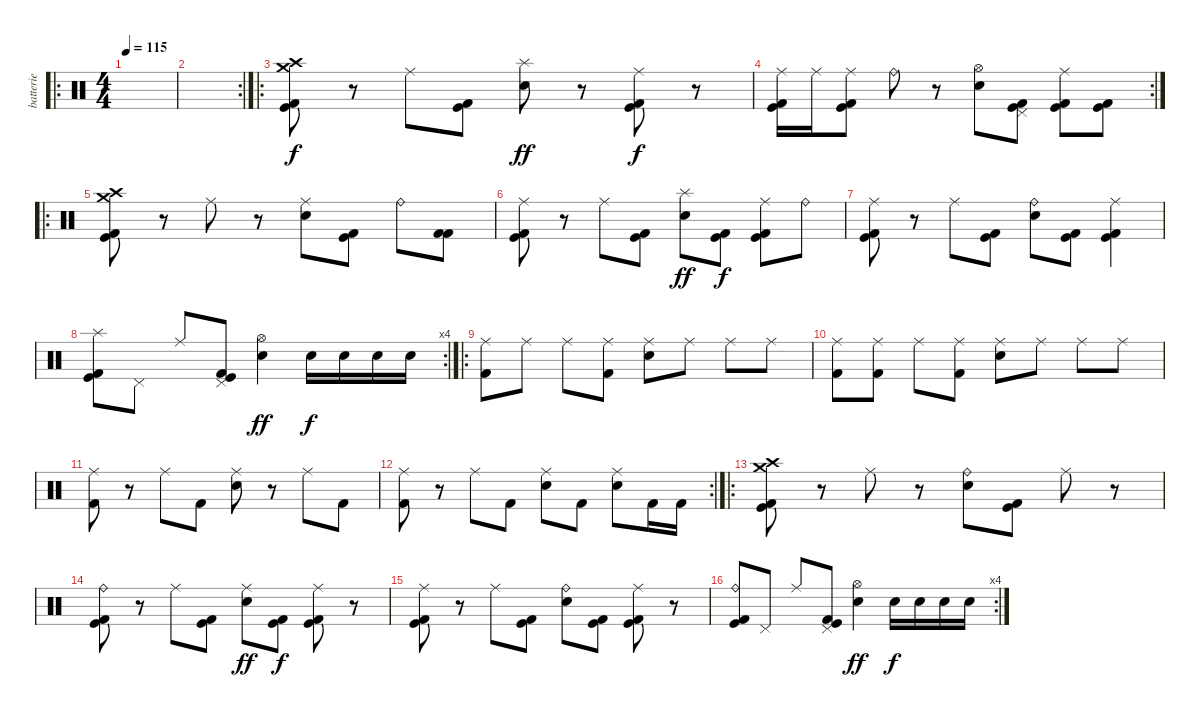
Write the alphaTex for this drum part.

\track ("batterie" "batterie") {instrument percussion}
\staff {score}
\articulation defaults
\ro
\ts (4 4)
\tempo 115
\clef neutral
\ks c
|
\rc 2
|
\ro
("Crash medium (hit)" "Crash high (hit)" "Kick (hit)" "Kick (hit) 2").8 r.8 "Ride (middle)".8 ("Kick (hit)" "Kick (hit) 2").8 ("Splash (hit)" "Electric Snare (hit)").8{dy ff} r.8 ("Ride (middle)" "Kick (hit)" "Kick (hit) 2").8{dy f} r.8 |
\rc 2
("Ride (middle)" "Kick (hit)" "Kick (hit) 2").16 "Ride (middle)".16 ("Ride (middle)" "Kick (hit)" "Kick (hit) 2").8 "Ride (bell)".8 r.8 ("Hi-Hat (open)" "Electric Snare (hit)").8 ("Pedal Hi-Hat (hit)" "Kick (hit)" "Kick (hit) 2").8 ("Ride (middle)" "Kick (hit)" "Kick (hit) 2").8 ("Kick (hit)" "Kick (hit) 2").8 |
\ro
("Crash high (hit)" "Crash medium (hit)" "Kick (hit)" "Kick (hit) 2").8 r.8 "Ride (middle)".8 r.8 ("Ride (middle)" "Electric Snare (hit)").8 ("Kick (hit)" "Kick (hit) 2").8 "Ride (bell)".8 ("Kick (hit) 2" "Kick (hit) 2").8 |
("Ride (middle)" "Kick (hit)" "Kick (hit) 2").8 r.8 "Ride (middle)".8 ("Kick (hit)" "Kick (hit) 2").8 ("Splash (hit)" "Electric Snare (hit)").8{dy ff} ("Kick (hit)" "Kick (hit) 2").8{dy f} ("Ride (middle)" "Kick (hit)" "Kick (hit) 2").8 "Ride (bell)".8 |
("Ride (middle)" "Kick (hit)" "Kick (hit) 2").8 r.8 "Ride (middle)".8 ("Kick (hit)" "Kick (hit) 2").8 ("Ride (bell)" "Electric Snare (hit)").8 ("Kick (hit)" "Kick (hit) 2").8 ("Ride (middle)" "Kick (hit)" "Kick (hit) 2").4 |
\rc 4
("Splash (hit)" "Kick (hit)" "Kick (hit) 2").8 "Pedal Hi-Hat (hit)".8 "Ride (middle)".8 ("Pedal Hi-Hat (hit)" "Kick (hit)" "Kick (hit) 2").8 ("Hi-Hat (open)" "Electric Snare (hit)").4{dy ff} "Electric Snare (hit)".16{dy f} "Electric Snare (hit)".16 "Electric Snare (hit)".16 "Electric Snare (hit)".16 |
\ro
("Ride (middle)" "Kick (hit) 2").8 "Ride (middle)".8 "Ride (middle)".8 ("Ride (middle)" "Kick (hit) 2").8 ("Ride (middle)" "Electric Snare (hit)").8 "Ride (middle)".8 "Ride (middle)".8 "Ride (middle)".8 |
("Ride (middle)" "Kick (hit) 2").8 ("Ride (middle)" "Kick (hit) 2").8 "Ride (middle)".8 ("Ride (middle)" "Kick (hit) 2").8 ("Ride (middle)" "Electric Snare (hit)").8 "Ride (middle)".8 "Ride (middle)".8 "Ride (middle)".8 |
("Ride (middle)" "Kick (hit) 2").8 r.8 "Ride (middle)".8 "Kick (hit) 2".8 ("Ride (middle)" "Electric Snare (hit)").8 r.8 "Ride (middle)".8 "Kick (hit) 2".8 |
\rc 2
("Ride (middle)" "Kick (hit) 2").8 r.8 "Ride (middle)".8 "Kick (hit) 2".8 ("Ride (middle)" "Electric Snare (hit)").8 "Kick (hit) 2".8 ("Ride (middle)" "Electric Snare (hit)").8 "Kick (hit) 2".16 "Kick (hit) 2".16 |
\ro
("Crash high (hit)" "Crash medium (hit)" "Kick (hit)" "Kick (hit) 2").8 r.8 "Ride (middle)".8 r.8 ("Ride (bell)" "Electric Snare (hit)").8 ("Kick (hit)" "Kick (hit) 2").8 "Ride (middle)".8 r.8 |
("Ride (bell)" "Kick (hit)" "Kick (hit) 2").8 r.8 "Ride (middle)".8 ("Kick (hit)" "Kick (hit) 2").8 ("Ride (middle)" "Electric Snare (hit)").8{dy ff} ("Kick (hit)" "Kick (hit) 2").8{dy f} ("Ride (middle)" "Kick (hit)" "Kick (hit) 2").8 r.8 |
("Ride (middle)" "Kick (hit)" "Kick (hit) 2").8 r.8 "Ride (middle)".8 ("Kick (hit)" "Kick (hit) 2").8 ("Ride (bell)" "Electric Snare (hit)").8 ("Kick (hit)" "Kick (hit) 2").8 ("Ride (middle)" "Kick (hit)" "Kick (hit) 2").8 r.8 |
\rc 4
("Ride (bell)" "Kick (hit)" "Kick (hit) 2").8 "Pedal Hi-Hat (hit)".8 "Ride (middle)".8 ("Pedal Hi-Hat (hit)" "Kick (hit)" "Kick (hit) 2").8 ("Hi-Hat (open)" "Electric Snare (hit)").4{dy ff} "Electric Snare (hit)".16{dy f} "Electric Snare (hit)".16 "Electric Snare (hit)".16 "Electric Snare (hit)".16
